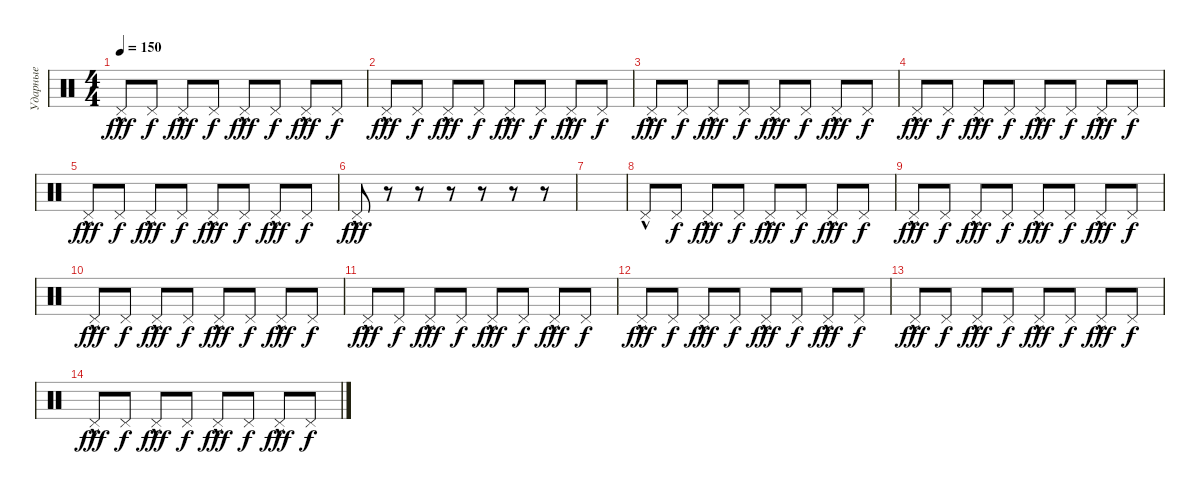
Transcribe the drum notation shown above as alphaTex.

\track ("Ударные" "Ударные") {instrument percussion}
\staff {score}
\articulation defaults
\ts (4 4)
\tempo 150
\clef neutral
\ks c "Pedal Hi-Hat (hit)"{hac}.8{dy fff} "Pedal Hi-Hat (hit)".8{dy f} "Pedal Hi-Hat (hit)"{hac}.8{dy fff} "Pedal Hi-Hat (hit)".8{dy f} "Pedal Hi-Hat (hit)"{hac}.8{dy fff} "Pedal Hi-Hat (hit)".8{dy f} "Pedal Hi-Hat (hit)"{hac}.8{dy fff} "Pedal Hi-Hat (hit)".8{dy f}
|
"Pedal Hi-Hat (hit)"{hac}.8{dy fff} "Pedal Hi-Hat (hit)".8{dy f} "Pedal Hi-Hat (hit)"{hac}.8{dy fff} "Pedal Hi-Hat (hit)".8{dy f} "Pedal Hi-Hat (hit)"{hac}.8{dy fff} "Pedal Hi-Hat (hit)".8{dy f} "Pedal Hi-Hat (hit)"{hac}.8{dy fff} "Pedal Hi-Hat (hit)".8{dy f} |
"Pedal Hi-Hat (hit)"{hac}.8{dy fff} "Pedal Hi-Hat (hit)".8{dy f} "Pedal Hi-Hat (hit)"{hac}.8{dy fff} "Pedal Hi-Hat (hit)".8{dy f} "Pedal Hi-Hat (hit)"{hac}.8{dy fff} "Pedal Hi-Hat (hit)".8{dy f} "Pedal Hi-Hat (hit)"{hac}.8{dy fff} "Pedal Hi-Hat (hit)".8{dy f} |
"Pedal Hi-Hat (hit)"{hac}.8{dy fff} "Pedal Hi-Hat (hit)".8{dy f} "Pedal Hi-Hat (hit)"{hac}.8{dy fff} "Pedal Hi-Hat (hit)".8{dy f} "Pedal Hi-Hat (hit)"{hac}.8{dy fff} "Pedal Hi-Hat (hit)".8{dy f} "Pedal Hi-Hat (hit)"{hac}.8{dy fff} "Pedal Hi-Hat (hit)".8{dy f} |
"Pedal Hi-Hat (hit)"{hac}.8{dy fff} "Pedal Hi-Hat (hit)".8{dy f} "Pedal Hi-Hat (hit)"{hac}.8{dy fff} "Pedal Hi-Hat (hit)".8{dy f} "Pedal Hi-Hat (hit)"{hac}.8{dy fff} "Pedal Hi-Hat (hit)".8{dy f} "Pedal Hi-Hat (hit)"{hac}.8{dy fff} "Pedal Hi-Hat (hit)".8{dy f} |
"Pedal Hi-Hat (hit)"{hac}.8{dy fff} r.8 r.8 r.8 r.8 r.8 r.8 |
|
"Pedal Hi-Hat (hit)"{hac}.8 "Pedal Hi-Hat (hit)".8{dy f} "Pedal Hi-Hat (hit)"{hac}.8{dy fff} "Pedal Hi-Hat (hit)".8{dy f} "Pedal Hi-Hat (hit)"{hac}.8{dy fff} "Pedal Hi-Hat (hit)".8{dy f} "Pedal Hi-Hat (hit)"{hac}.8{dy fff} "Pedal Hi-Hat (hit)".8{dy f} |
"Pedal Hi-Hat (hit)"{hac}.8{dy fff} "Pedal Hi-Hat (hit)".8{dy f} "Pedal Hi-Hat (hit)"{hac}.8{dy fff} "Pedal Hi-Hat (hit)".8{dy f} "Pedal Hi-Hat (hit)"{hac}.8{dy fff} "Pedal Hi-Hat (hit)".8{dy f} "Pedal Hi-Hat (hit)"{hac}.8{dy fff} "Pedal Hi-Hat (hit)".8{dy f} |
"Pedal Hi-Hat (hit)"{hac}.8{dy fff} "Pedal Hi-Hat (hit)".8{dy f} "Pedal Hi-Hat (hit)"{hac}.8{dy fff} "Pedal Hi-Hat (hit)".8{dy f} "Pedal Hi-Hat (hit)"{hac}.8{dy fff} "Pedal Hi-Hat (hit)".8{dy f} "Pedal Hi-Hat (hit)"{hac}.8{dy fff} "Pedal Hi-Hat (hit)".8{dy f} |
"Pedal Hi-Hat (hit)"{hac}.8{dy fff} "Pedal Hi-Hat (hit)".8{dy f} "Pedal Hi-Hat (hit)"{hac}.8{dy fff} "Pedal Hi-Hat (hit)".8{dy f} "Pedal Hi-Hat (hit)"{hac}.8{dy fff} "Pedal Hi-Hat (hit)".8{dy f} "Pedal Hi-Hat (hit)"{hac}.8{dy fff} "Pedal Hi-Hat (hit)".8{dy f} |
"Pedal Hi-Hat (hit)"{hac}.8{dy fff} "Pedal Hi-Hat (hit)".8{dy f} "Pedal Hi-Hat (hit)"{hac}.8{dy fff} "Pedal Hi-Hat (hit)".8{dy f} "Pedal Hi-Hat (hit)"{hac}.8{dy fff} "Pedal Hi-Hat (hit)".8{dy f} "Pedal Hi-Hat (hit)"{hac}.8{dy fff} "Pedal Hi-Hat (hit)".8{dy f} |
"Pedal Hi-Hat (hit)"{hac}.8{dy fff} "Pedal Hi-Hat (hit)".8{dy f} "Pedal Hi-Hat (hit)"{hac}.8{dy fff} "Pedal Hi-Hat (hit)".8{dy f} "Pedal Hi-Hat (hit)"{hac}.8{dy fff} "Pedal Hi-Hat (hit)".8{dy f} "Pedal Hi-Hat (hit)"{hac}.8{dy fff} "Pedal Hi-Hat (hit)".8{dy f} |
"Pedal Hi-Hat (hit)"{hac}.8{dy fff} "Pedal Hi-Hat (hit)".8{dy f} "Pedal Hi-Hat (hit)"{hac}.8{dy fff} "Pedal Hi-Hat (hit)".8{dy f} "Pedal Hi-Hat (hit)"{hac}.8{dy fff} "Pedal Hi-Hat (hit)".8{dy f} "Pedal Hi-Hat (hit)"{hac}.8{dy fff} "Pedal Hi-Hat (hit)".8{dy f}
